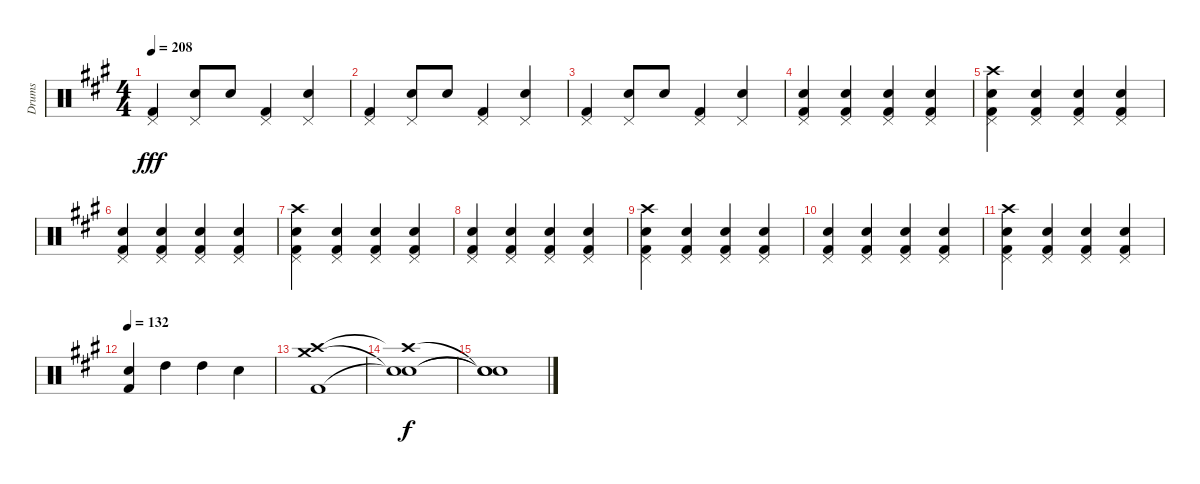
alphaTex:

\track ("Drums" "Drums") {instrument percussion}
\staff {score}
\articulation defaults
\ts (4 4)
\tempo 208
\clef neutral
\ks a
("Pedal Hi-Hat (hit)" "Kick (hit) 2").4{dy fff} ("Pedal Hi-Hat (hit)" "Snare (hit) 2").8 "Snare (hit) 2".8 ("Pedal Hi-Hat (hit)" "Kick (hit) 2").4 ("Pedal Hi-Hat (hit)" "Snare (hit) 2").4 |
("Pedal Hi-Hat (hit)" "Kick (hit) 2").4 ("Pedal Hi-Hat (hit)" "Snare (hit) 2").8 "Snare (hit) 2".8 ("Pedal Hi-Hat (hit)" "Kick (hit) 2").4 ("Pedal Hi-Hat (hit)" "Snare (hit) 2").4 |
("Pedal Hi-Hat (hit)" "Kick (hit) 2").4 ("Pedal Hi-Hat (hit)" "Snare (hit) 2").8 "Snare (hit) 2".8 ("Pedal Hi-Hat (hit)" "Kick (hit) 2").4 ("Pedal Hi-Hat (hit)" "Snare (hit) 2").4 |
("Pedal Hi-Hat (hit)" "Snare (hit) 2" "Kick (hit) 2").4 ("Pedal Hi-Hat (hit)" "Snare (hit) 2" "Kick (hit) 2").4 ("Pedal Hi-Hat (hit)" "Snare (hit) 2" "Kick (hit) 2").4 ("Pedal Hi-Hat (hit)" "Snare (hit) 2" "Kick (hit) 2").4 |
("Crash high (hit)" "Pedal Hi-Hat (hit)" "Snare (hit) 2" "Kick (hit) 2").4 ("Pedal Hi-Hat (hit)" "Snare (hit) 2" "Kick (hit) 2").4 ("Pedal Hi-Hat (hit)" "Snare (hit) 2" "Kick (hit) 2").4 ("Pedal Hi-Hat (hit)" "Snare (hit) 2" "Kick (hit) 2").4 |
("Pedal Hi-Hat (hit)" "Snare (hit) 2" "Kick (hit) 2").4 ("Pedal Hi-Hat (hit)" "Snare (hit) 2" "Kick (hit) 2").4 ("Pedal Hi-Hat (hit)" "Snare (hit) 2" "Kick (hit) 2").4 ("Pedal Hi-Hat (hit)" "Snare (hit) 2" "Kick (hit) 2").4 |
("Crash high (hit)" "Pedal Hi-Hat (hit)" "Snare (hit) 2" "Kick (hit) 2").4 ("Pedal Hi-Hat (hit)" "Snare (hit) 2" "Kick (hit) 2").4 ("Pedal Hi-Hat (hit)" "Snare (hit) 2" "Kick (hit) 2").4 ("Pedal Hi-Hat (hit)" "Snare (hit) 2" "Kick (hit) 2").4 |
("Pedal Hi-Hat (hit)" "Snare (hit) 2" "Kick (hit) 2").4 ("Pedal Hi-Hat (hit)" "Snare (hit) 2" "Kick (hit) 2").4 ("Pedal Hi-Hat (hit)" "Snare (hit) 2" "Kick (hit) 2").4 ("Pedal Hi-Hat (hit)" "Snare (hit) 2" "Kick (hit) 2").4 |
("Crash high (hit)" "Pedal Hi-Hat (hit)" "Snare (hit) 2" "Kick (hit) 2").4 ("Pedal Hi-Hat (hit)" "Snare (hit) 2" "Kick (hit) 2").4 ("Pedal Hi-Hat (hit)" "Snare (hit) 2" "Kick (hit) 2").4 ("Pedal Hi-Hat (hit)" "Snare (hit) 2" "Kick (hit) 2").4 |
("Pedal Hi-Hat (hit)" "Snare (hit) 2" "Kick (hit) 2").4 ("Pedal Hi-Hat (hit)" "Snare (hit) 2" "Kick (hit) 2").4 ("Pedal Hi-Hat (hit)" "Snare (hit) 2" "Kick (hit) 2").4 ("Pedal Hi-Hat (hit)" "Snare (hit) 2" "Kick (hit) 2").4 |
("Crash high (hit)" "Pedal Hi-Hat (hit)" "Snare (hit) 2" "Kick (hit) 2").4 ("Pedal Hi-Hat (hit)" "Snare (hit) 2" "Kick (hit) 2").4 ("Pedal Hi-Hat (hit)" "Snare (hit) 2" "Kick (hit) 2").4 ("Pedal Hi-Hat (hit)" "Snare (hit) 2" "Kick (hit) 2").4 |
\tempo 132
("Snare (hit) 2" "Kick (hit) 2").4 "High Tom (hit)".4 "High Tom (hit)".4 "Snare (hit) 2".4 |
("Crash high (hit)" "Crash medium (hit)" "Kick (hit) 2").1 |
("Crash high (hit)"{t} "Snare (hit)"{t} "Snare (hit)"{t}).1{dy f} |
("Snare (hit)"{t} "Snare (hit)"{t} "Snare (hit)"{t}).1
